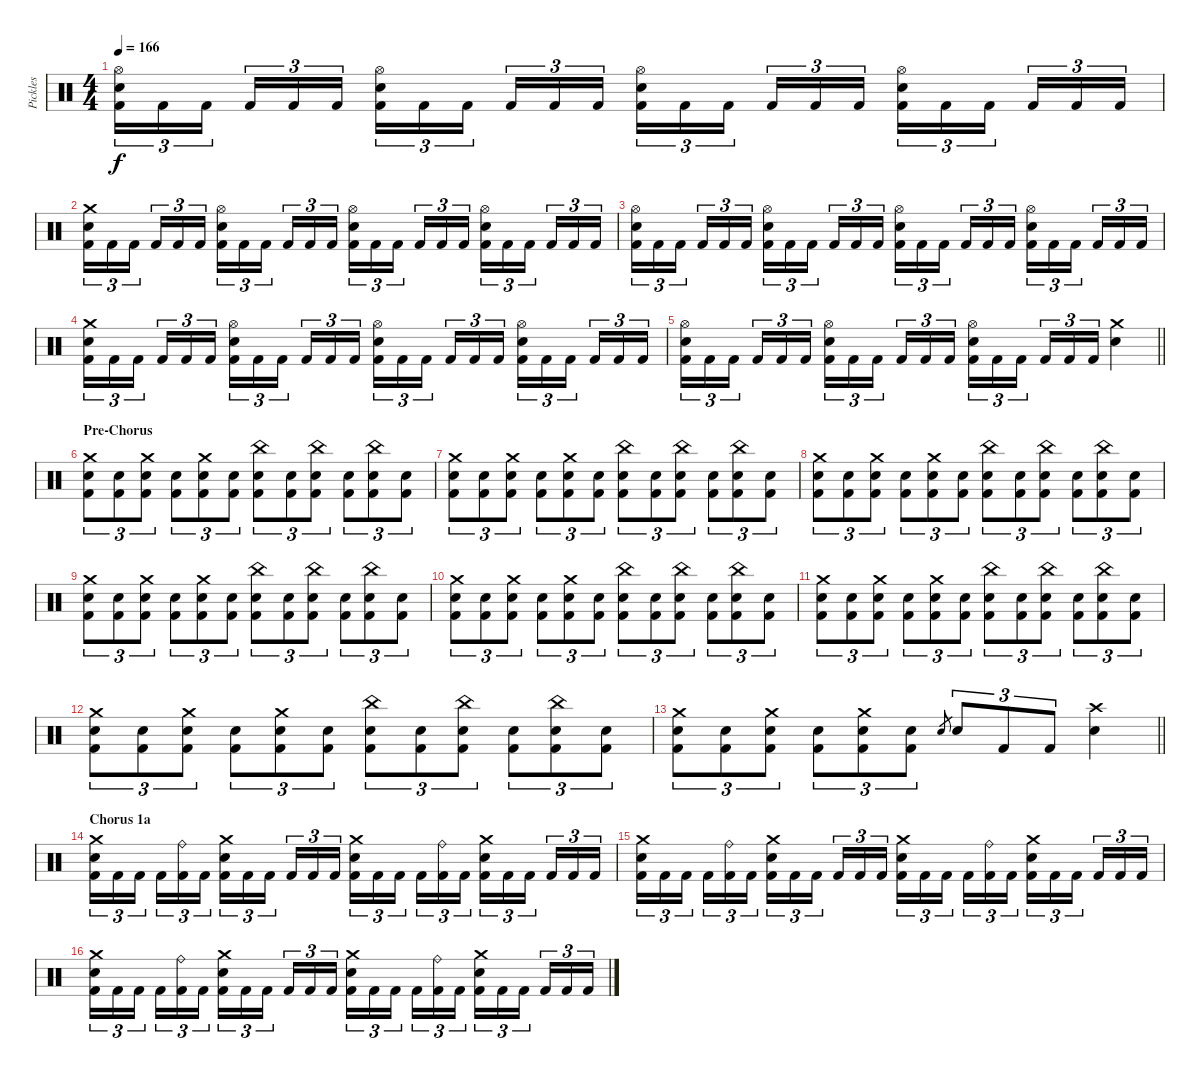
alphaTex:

\track ("Pickles" "Pickles") {instrument percussion}
\staff {score}
\articulation defaults
\ts (4 4)
\tempo 166
\clef neutral
\ks c
("Hi-Hat (open)" "Snare (hit) 2" "Kick (hit) 2").16{tu (3 2) dy f} "Kick (hit) 2".16{tu (3 2)} "Kick (hit) 2".16{tu (3 2) beam splitsecondary} "Kick (hit) 2".16{tu (3 2)} "Kick (hit) 2".16{tu (3 2)} "Kick (hit) 2".16{tu (3 2)} ("Hi-Hat (open)" "Snare (hit) 2" "Kick (hit) 2").16{tu (3 2)} "Kick (hit) 2".16{tu (3 2)} "Kick (hit) 2".16{tu (3 2) beam splitsecondary} "Kick (hit) 2".16{tu (3 2)} "Kick (hit) 2".16{tu (3 2)} "Kick (hit) 2".16{tu (3 2)} ("Hi-Hat (open)" "Snare (hit) 2" "Kick (hit) 2").16{tu (3 2)} "Kick (hit) 2".16{tu (3 2)} "Kick (hit) 2".16{tu (3 2) beam splitsecondary} "Kick (hit) 2".16{tu (3 2)} "Kick (hit) 2".16{tu (3 2)} "Kick (hit) 2".16{tu (3 2)} ("Hi-Hat (open)" "Snare (hit) 2" "Kick (hit) 2").16{tu (3 2)} "Kick (hit) 2".16{tu (3 2)} "Kick (hit) 2".16{tu (3 2) beam splitsecondary} "Kick (hit) 2".16{tu (3 2)} "Kick (hit) 2".16{tu (3 2)} "Kick (hit) 2".16{tu (3 2)} |
("Crash medium (hit)" "Snare (hit) 2" "Kick (hit) 2").16{tu (3 2)} "Kick (hit) 2".16{tu (3 2)} "Kick (hit) 2".16{tu (3 2) beam splitsecondary} "Kick (hit) 2".16{tu (3 2)} "Kick (hit) 2".16{tu (3 2)} "Kick (hit) 2".16{tu (3 2)} ("Hi-Hat (open)" "Snare (hit) 2" "Kick (hit) 2").16{tu (3 2)} "Kick (hit) 2".16{tu (3 2)} "Kick (hit) 2".16{tu (3 2) beam splitsecondary} "Kick (hit) 2".16{tu (3 2)} "Kick (hit) 2".16{tu (3 2)} "Kick (hit) 2".16{tu (3 2)} ("Hi-Hat (open)" "Snare (hit) 2" "Kick (hit) 2").16{tu (3 2)} "Kick (hit) 2".16{tu (3 2)} "Kick (hit) 2".16{tu (3 2) beam splitsecondary} "Kick (hit) 2".16{tu (3 2)} "Kick (hit) 2".16{tu (3 2)} "Kick (hit) 2".16{tu (3 2)} ("Hi-Hat (open)" "Snare (hit) 2" "Kick (hit) 2").16{tu (3 2)} "Kick (hit) 2".16{tu (3 2)} "Kick (hit) 2".16{tu (3 2) beam splitsecondary} "Kick (hit) 2".16{tu (3 2)} "Kick (hit) 2".16{tu (3 2)} "Kick (hit) 2".16{tu (3 2)} |
("Hi-Hat (open)" "Snare (hit) 2" "Kick (hit) 2").16{tu (3 2)} "Kick (hit) 2".16{tu (3 2)} "Kick (hit) 2".16{tu (3 2) beam splitsecondary} "Kick (hit) 2".16{tu (3 2)} "Kick (hit) 2".16{tu (3 2)} "Kick (hit) 2".16{tu (3 2)} ("Hi-Hat (open)" "Snare (hit) 2" "Kick (hit) 2").16{tu (3 2)} "Kick (hit) 2".16{tu (3 2)} "Kick (hit) 2".16{tu (3 2) beam splitsecondary} "Kick (hit) 2".16{tu (3 2)} "Kick (hit) 2".16{tu (3 2)} "Kick (hit) 2".16{tu (3 2)} ("Hi-Hat (open)" "Snare (hit) 2" "Kick (hit) 2").16{tu (3 2)} "Kick (hit) 2".16{tu (3 2)} "Kick (hit) 2".16{tu (3 2) beam splitsecondary} "Kick (hit) 2".16{tu (3 2)} "Kick (hit) 2".16{tu (3 2)} "Kick (hit) 2".16{tu (3 2)} ("Hi-Hat (open)" "Snare (hit) 2" "Kick (hit) 2").16{tu (3 2)} "Kick (hit) 2".16{tu (3 2)} "Kick (hit) 2".16{tu (3 2) beam splitsecondary} "Kick (hit) 2".16{tu (3 2)} "Kick (hit) 2".16{tu (3 2)} "Kick (hit) 2".16{tu (3 2)} |
("Crash medium (hit)" "Snare (hit) 2" "Kick (hit) 2").16{tu (3 2)} "Kick (hit) 2".16{tu (3 2)} "Kick (hit) 2".16{tu (3 2) beam splitsecondary} "Kick (hit) 2".16{tu (3 2)} "Kick (hit) 2".16{tu (3 2)} "Kick (hit) 2".16{tu (3 2)} ("Hi-Hat (open)" "Snare (hit) 2" "Kick (hit) 2").16{tu (3 2)} "Kick (hit) 2".16{tu (3 2)} "Kick (hit) 2".16{tu (3 2) beam splitsecondary} "Kick (hit) 2".16{tu (3 2)} "Kick (hit) 2".16{tu (3 2)} "Kick (hit) 2".16{tu (3 2)} ("Hi-Hat (open)" "Snare (hit) 2" "Kick (hit) 2").16{tu (3 2)} "Kick (hit) 2".16{tu (3 2)} "Kick (hit) 2".16{tu (3 2) beam splitsecondary} "Kick (hit) 2".16{tu (3 2)} "Kick (hit) 2".16{tu (3 2)} "Kick (hit) 2".16{tu (3 2)} ("Hi-Hat (open)" "Snare (hit) 2" "Kick (hit) 2").16{tu (3 2)} "Kick (hit) 2".16{tu (3 2)} "Kick (hit) 2".16{tu (3 2) beam splitsecondary} "Kick (hit) 2".16{tu (3 2)} "Kick (hit) 2".16{tu (3 2)} "Kick (hit) 2".16{tu (3 2)} |
\barLineRight lightlight
("Hi-Hat (open)" "Snare (hit) 2" "Kick (hit) 2").16{tu (3 2)} "Kick (hit) 2".16{tu (3 2)} "Kick (hit) 2".16{tu (3 2) beam splitsecondary} "Kick (hit) 2".16{tu (3 2)} "Kick (hit) 2".16{tu (3 2)} "Kick (hit) 2".16{tu (3 2)} ("Hi-Hat (open)" "Snare (hit) 2" "Kick (hit) 2").16{tu (3 2)} "Kick (hit) 2".16{tu (3 2)} "Kick (hit) 2".16{tu (3 2) beam splitsecondary} "Kick (hit) 2".16{tu (3 2)} "Kick (hit) 2".16{tu (3 2)} "Kick (hit) 2".16{tu (3 2)} ("Hi-Hat (open)" "Snare (hit) 2" "Kick (hit) 2").16{tu (3 2)} "Kick (hit) 2".16{tu (3 2)} "Kick (hit) 2".16{tu (3 2) beam splitsecondary} "Kick (hit) 2".16{tu (3 2)} "Kick (hit) 2".16{tu (3 2)} "Kick (hit) 2".16{tu (3 2)} ("Crash medium (hit)" "Snare (hit) 2").4 |
\section ("" "Pre-Chorus")
("Crash medium (hit)" "Snare (hit) 2" "Kick (hit) 2").8{tu (3 2)} ("Snare (hit) 2" "Kick (hit) 2").8{tu (3 2)} ("Crash medium (hit)" "Snare (hit) 2" "Kick (hit) 2").8{tu (3 2)} ("Snare (hit) 2" "Kick (hit) 2").8{tu (3 2)} ("Crash medium (hit)" "Snare (hit) 2" "Kick (hit) 2").8{tu (3 2)} ("Snare (hit) 2" "Kick (hit) 2").8{tu (3 2)} ("China (hit)" "Snare (hit) 2" "Kick (hit) 2").8{tu (3 2)} ("Snare (hit) 2" "Kick (hit) 2").8{tu (3 2)} ("China (hit)" "Snare (hit) 2" "Kick (hit) 2").8{tu (3 2)} ("Snare (hit) 2" "Kick (hit) 2").8{tu (3 2)} ("China (hit)" "Snare (hit) 2" "Kick (hit) 2").8{tu (3 2)} ("Snare (hit) 2" "Kick (hit) 2").8{tu (3 2)} |
("Crash medium (hit)" "Snare (hit) 2" "Kick (hit) 2").8{tu (3 2)} ("Snare (hit) 2" "Kick (hit) 2").8{tu (3 2)} ("Crash medium (hit)" "Snare (hit) 2" "Kick (hit) 2").8{tu (3 2)} ("Snare (hit) 2" "Kick (hit) 2").8{tu (3 2)} ("Crash medium (hit)" "Snare (hit) 2" "Kick (hit) 2").8{tu (3 2)} ("Snare (hit) 2" "Kick (hit) 2").8{tu (3 2)} ("China (hit)" "Snare (hit) 2" "Kick (hit) 2").8{tu (3 2)} ("Snare (hit) 2" "Kick (hit) 2").8{tu (3 2)} ("China (hit)" "Snare (hit) 2" "Kick (hit) 2").8{tu (3 2)} ("Snare (hit) 2" "Kick (hit) 2").8{tu (3 2)} ("China (hit)" "Snare (hit) 2" "Kick (hit) 2").8{tu (3 2)} ("Snare (hit) 2" "Kick (hit) 2").8{tu (3 2)} |
("Crash medium (hit)" "Snare (hit) 2" "Kick (hit) 2").8{tu (3 2)} ("Snare (hit) 2" "Kick (hit) 2").8{tu (3 2)} ("Crash medium (hit)" "Snare (hit) 2" "Kick (hit) 2").8{tu (3 2)} ("Snare (hit) 2" "Kick (hit) 2").8{tu (3 2)} ("Crash medium (hit)" "Snare (hit) 2" "Kick (hit) 2").8{tu (3 2)} ("Snare (hit) 2" "Kick (hit) 2").8{tu (3 2)} ("China (hit)" "Snare (hit) 2" "Kick (hit) 2").8{tu (3 2)} ("Snare (hit) 2" "Kick (hit) 2").8{tu (3 2)} ("China (hit)" "Snare (hit) 2" "Kick (hit) 2").8{tu (3 2)} ("Snare (hit) 2" "Kick (hit) 2").8{tu (3 2)} ("China (hit)" "Snare (hit) 2" "Kick (hit) 2").8{tu (3 2)} ("Snare (hit) 2" "Kick (hit) 2").8{tu (3 2)} |
("Crash medium (hit)" "Snare (hit) 2" "Kick (hit) 2").8{tu (3 2)} ("Snare (hit) 2" "Kick (hit) 2").8{tu (3 2)} ("Crash medium (hit)" "Snare (hit) 2" "Kick (hit) 2").8{tu (3 2)} ("Snare (hit) 2" "Kick (hit) 2").8{tu (3 2)} ("Crash medium (hit)" "Snare (hit) 2" "Kick (hit) 2").8{tu (3 2)} ("Snare (hit) 2" "Kick (hit) 2").8{tu (3 2)} ("China (hit)" "Snare (hit) 2" "Kick (hit) 2").8{tu (3 2)} ("Snare (hit) 2" "Kick (hit) 2").8{tu (3 2)} ("China (hit)" "Snare (hit) 2" "Kick (hit) 2").8{tu (3 2)} ("Snare (hit) 2" "Kick (hit) 2").8{tu (3 2)} ("China (hit)" "Snare (hit) 2" "Kick (hit) 2").8{tu (3 2)} ("Snare (hit) 2" "Kick (hit) 2").8{tu (3 2)} |
("Crash medium (hit)" "Snare (hit) 2" "Kick (hit) 2").8{tu (3 2)} ("Snare (hit) 2" "Kick (hit) 2").8{tu (3 2)} ("Crash medium (hit)" "Snare (hit) 2" "Kick (hit) 2").8{tu (3 2)} ("Snare (hit) 2" "Kick (hit) 2").8{tu (3 2)} ("Crash medium (hit)" "Snare (hit) 2" "Kick (hit) 2").8{tu (3 2)} ("Snare (hit) 2" "Kick (hit) 2").8{tu (3 2)} ("China (hit)" "Snare (hit) 2" "Kick (hit) 2").8{tu (3 2)} ("Snare (hit) 2" "Kick (hit) 2").8{tu (3 2)} ("China (hit)" "Snare (hit) 2" "Kick (hit) 2").8{tu (3 2)} ("Snare (hit) 2" "Kick (hit) 2").8{tu (3 2)} ("China (hit)" "Snare (hit) 2" "Kick (hit) 2").8{tu (3 2)} ("Snare (hit) 2" "Kick (hit) 2").8{tu (3 2)} |
("Crash medium (hit)" "Snare (hit) 2" "Kick (hit) 2").8{tu (3 2)} ("Snare (hit) 2" "Kick (hit) 2").8{tu (3 2)} ("Crash medium (hit)" "Snare (hit) 2" "Kick (hit) 2").8{tu (3 2)} ("Snare (hit) 2" "Kick (hit) 2").8{tu (3 2)} ("Crash medium (hit)" "Snare (hit) 2" "Kick (hit) 2").8{tu (3 2)} ("Snare (hit) 2" "Kick (hit) 2").8{tu (3 2)} ("China (hit)" "Snare (hit) 2" "Kick (hit) 2").8{tu (3 2)} ("Snare (hit) 2" "Kick (hit) 2").8{tu (3 2)} ("China (hit)" "Snare (hit) 2" "Kick (hit) 2").8{tu (3 2)} ("Snare (hit) 2" "Kick (hit) 2").8{tu (3 2)} ("China (hit)" "Snare (hit) 2" "Kick (hit) 2").8{tu (3 2)} ("Snare (hit) 2" "Kick (hit) 2").8{tu (3 2)} |
("Crash medium (hit)" "Snare (hit) 2" "Kick (hit) 2").8{tu (3 2)} ("Snare (hit) 2" "Kick (hit) 2").8{tu (3 2)} ("Crash medium (hit)" "Snare (hit) 2" "Kick (hit) 2").8{tu (3 2)} ("Snare (hit) 2" "Kick (hit) 2").8{tu (3 2)} ("Crash medium (hit)" "Snare (hit) 2" "Kick (hit) 2").8{tu (3 2)} ("Snare (hit) 2" "Kick (hit) 2").8{tu (3 2)} ("China (hit)" "Snare (hit) 2" "Kick (hit) 2").8{tu (3 2)} ("Snare (hit) 2" "Kick (hit) 2").8{tu (3 2)} ("China (hit)" "Snare (hit) 2" "Kick (hit) 2").8{tu (3 2)} ("Snare (hit) 2" "Kick (hit) 2").8{tu (3 2)} ("China (hit)" "Snare (hit) 2" "Kick (hit) 2").8{tu (3 2)} ("Snare (hit) 2" "Kick (hit) 2").8{tu (3 2)} |
\barLineRight lightlight
("Crash medium (hit)" "Snare (hit) 2" "Kick (hit) 2").8{tu (3 2)} ("Snare (hit) 2" "Kick (hit) 2").8{tu (3 2)} ("Crash medium (hit)" "Snare (hit) 2" "Kick (hit) 2").8{tu (3 2)} ("Snare (hit) 2" "Kick (hit) 2").8{tu (3 2)} ("Crash medium (hit)" "Snare (hit) 2" "Kick (hit) 2").8{tu (3 2)} ("Snare (hit) 2" "Kick (hit) 2").8{tu (3 2)} "Snare (hit) 2".8{gr} "Snare (hit) 2".8{tu (3 2)} "Kick (hit) 2".8{tu (3 2)} "Kick (hit) 2".8{tu (3 2)} ("Crash high (hit)" "Snare (hit) 2").4 |
\section ("" "Chorus 1a")
("Crash medium (hit)" "Snare (hit) 2" "Kick (hit) 2").16{tu (3 2)} "Kick (hit) 2".16{tu (3 2)} "Kick (hit) 2".16{tu (3 2) beam splitsecondary} "Kick (hit) 2".16{tu (3 2)} ("Ride (bell)" "Kick (hit) 2").16{tu (3 2)} "Kick (hit) 2".16{tu (3 2)} ("Crash medium (hit)" "Snare (hit) 2" "Kick (hit) 2").16{tu (3 2)} "Kick (hit) 2".16{tu (3 2)} "Kick (hit) 2".16{tu (3 2) beam splitsecondary} "Kick (hit) 2".16{tu (3 2)} "Kick (hit) 2".16{tu (3 2)} "Kick (hit) 2".16{tu (3 2)} ("Crash medium (hit)" "Snare (hit) 2" "Kick (hit) 2").16{tu (3 2)} "Kick (hit) 2".16{tu (3 2)} "Kick (hit) 2".16{tu (3 2) beam splitsecondary} "Kick (hit) 2".16{tu (3 2)} ("Ride (bell)" "Kick (hit) 2").16{tu (3 2)} "Kick (hit) 2".16{tu (3 2)} ("Crash medium (hit)" "Snare (hit) 2" "Kick (hit) 2").16{tu (3 2)} "Kick (hit) 2".16{tu (3 2)} "Kick (hit) 2".16{tu (3 2) beam splitsecondary} "Kick (hit) 2".16{tu (3 2)} "Kick (hit) 2".16{tu (3 2)} "Kick (hit) 2".16{tu (3 2)} |
("Crash medium (hit)" "Snare (hit) 2" "Kick (hit) 2").16{tu (3 2)} "Kick (hit) 2".16{tu (3 2)} "Kick (hit) 2".16{tu (3 2) beam splitsecondary} "Kick (hit) 2".16{tu (3 2)} ("Ride (bell)" "Kick (hit) 2").16{tu (3 2)} "Kick (hit) 2".16{tu (3 2)} ("Crash medium (hit)" "Snare (hit) 2" "Kick (hit) 2").16{tu (3 2)} "Kick (hit) 2".16{tu (3 2)} "Kick (hit) 2".16{tu (3 2) beam splitsecondary} "Kick (hit) 2".16{tu (3 2)} "Kick (hit) 2".16{tu (3 2)} "Kick (hit) 2".16{tu (3 2)} ("Crash medium (hit)" "Snare (hit) 2" "Kick (hit) 2").16{tu (3 2)} "Kick (hit) 2".16{tu (3 2)} "Kick (hit) 2".16{tu (3 2) beam splitsecondary} "Kick (hit) 2".16{tu (3 2)} ("Ride (bell)" "Kick (hit) 2").16{tu (3 2)} "Kick (hit) 2".16{tu (3 2)} ("Crash medium (hit)" "Snare (hit) 2" "Kick (hit) 2").16{tu (3 2)} "Kick (hit) 2".16{tu (3 2)} "Kick (hit) 2".16{tu (3 2) beam splitsecondary} "Kick (hit) 2".16{tu (3 2)} "Kick (hit) 2".16{tu (3 2)} "Kick (hit) 2".16{tu (3 2)} |
("Crash medium (hit)" "Snare (hit) 2" "Kick (hit) 2").16{tu (3 2)} "Kick (hit) 2".16{tu (3 2)} "Kick (hit) 2".16{tu (3 2) beam splitsecondary} "Kick (hit) 2".16{tu (3 2)} ("Ride (bell)" "Kick (hit) 2").16{tu (3 2)} "Kick (hit) 2".16{tu (3 2)} ("Crash medium (hit)" "Snare (hit) 2" "Kick (hit) 2").16{tu (3 2)} "Kick (hit) 2".16{tu (3 2)} "Kick (hit) 2".16{tu (3 2) beam splitsecondary} "Kick (hit) 2".16{tu (3 2)} "Kick (hit) 2".16{tu (3 2)} "Kick (hit) 2".16{tu (3 2)} ("Crash medium (hit)" "Snare (hit) 2" "Kick (hit) 2").16{tu (3 2)} "Kick (hit) 2".16{tu (3 2)} "Kick (hit) 2".16{tu (3 2) beam splitsecondary} "Kick (hit) 2".16{tu (3 2)} ("Ride (bell)" "Kick (hit) 2").16{tu (3 2)} "Kick (hit) 2".16{tu (3 2)} ("Crash medium (hit)" "Snare (hit) 2" "Kick (hit) 2").16{tu (3 2)} "Kick (hit) 2".16{tu (3 2)} "Kick (hit) 2".16{tu (3 2) beam splitsecondary} "Kick (hit) 2".16{tu (3 2)} "Kick (hit) 2".16{tu (3 2)} "Kick (hit) 2".16{tu (3 2)}
